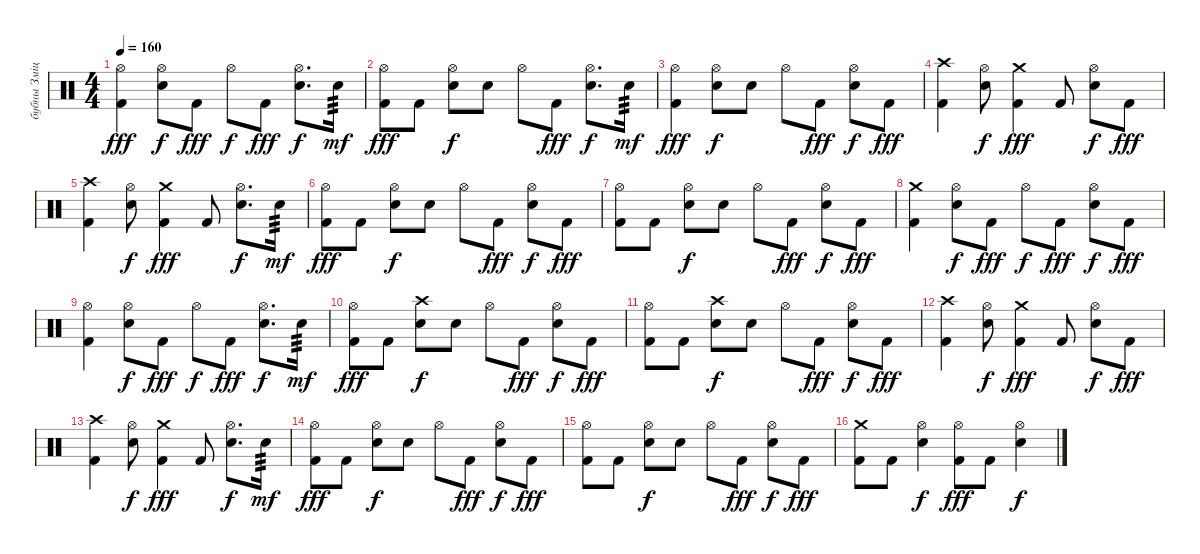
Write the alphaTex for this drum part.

\track ("бубны Змiцер" "бубны Змiц") {instrument percussion}
\staff {score}
\articulation defaults
\ts (4 4)
\tempo 160
\clef neutral
\ks c
("Hi-Hat (open)" "Kick (hit) 2").4{dy fff} ("Hi-Hat (open)" "Electric Snare (hit)").8{dy f} "Kick (hit) 2".8{dy fff} "Hi-Hat (open)".8{dy f} "Kick (hit) 2".8{dy fff} ("Hi-Hat (open)" "Electric Snare (hit)").8{d dy f} "Electric Snare (hit)".16{tp 3 dy mf} |
("Hi-Hat (open)" "Kick (hit) 2").8{dy fff} "Kick (hit) 2".8 ("Hi-Hat (open)" "Electric Snare (hit)").8{dy f} "Electric Snare (hit)".8 "Hi-Hat (open)".8 "Kick (hit) 2".8{dy fff} ("Hi-Hat (open)" "Electric Snare (hit)").8{d dy f} "Electric Snare (hit)".16{tp 3 dy mf} |
("Hi-Hat (open)" "Kick (hit) 2").4{dy fff} ("Hi-Hat (open)" "Electric Snare (hit)").8{dy f} "Electric Snare (hit)".8 "Hi-Hat (open)".8 "Kick (hit) 2".8{dy fff} ("Hi-Hat (open)" "Electric Snare (hit)").8{dy f} "Kick (hit) 2".8{dy fff} |
("Crash high (hit)" "Kick (hit) 2").4 ("Hi-Hat (open)" "Electric Snare (hit)").8{dy f} ("Crash medium (hit)" "Kick (hit) 2").4{dy fff} "Kick (hit) 2".8 ("Hi-Hat (open)" "Electric Snare (hit)").8{dy f} "Kick (hit) 2".8{dy fff} |
("Crash high (hit)" "Kick (hit) 2").4 ("Hi-Hat (open)" "Electric Snare (hit)").8{dy f} ("Crash medium (hit)" "Kick (hit) 2").4{dy fff} "Kick (hit) 2".8 ("Hi-Hat (open)" "Electric Snare (hit)").8{d dy f} "Electric Snare (hit)".16{tp 3 dy mf} |
("Hi-Hat (open)" "Kick (hit) 2").8{dy fff} "Kick (hit) 2".8 ("Hi-Hat (open)" "Electric Snare (hit)").8{dy f} "Electric Snare (hit)".8 "Hi-Hat (open)".8 "Kick (hit) 2".8{dy fff} ("Hi-Hat (open)" "Electric Snare (hit)").8{dy f} "Kick (hit) 2".8{dy fff} |
("Hi-Hat (open)" "Kick (hit) 2").8 "Kick (hit) 2".8 ("Hi-Hat (open)" "Electric Snare (hit)").8{dy f} "Electric Snare (hit)".8 "Hi-Hat (open)".8 "Kick (hit) 2".8{dy fff} ("Hi-Hat (open)" "Electric Snare (hit)").8{dy f} "Kick (hit) 2".8{dy fff} |
("Crash medium (hit)" "Kick (hit) 2").4 ("Hi-Hat (open)" "Electric Snare (hit)").8{dy f} "Kick (hit) 2".8{dy fff} "Hi-Hat (open)".8{dy f} "Kick (hit) 2".8{dy fff} ("Hi-Hat (open)" "Electric Snare (hit)").8{dy f} "Kick (hit) 2".8{dy fff} |
("Hi-Hat (open)" "Kick (hit) 2").4 ("Hi-Hat (open)" "Electric Snare (hit)").8{dy f} "Kick (hit) 2".8{dy fff} "Hi-Hat (open)".8{dy f} "Kick (hit) 2".8{dy fff} ("Hi-Hat (open)" "Electric Snare (hit)").8{d dy f} "Electric Snare (hit)".16{tp 3 dy mf} |
("Hi-Hat (open)" "Kick (hit) 2").8{dy fff} "Kick (hit) 2".8 ("Crash high (hit)" "Electric Snare (hit)").8{dy f} "Electric Snare (hit)".8 "Hi-Hat (open)".8 "Kick (hit) 2".8{dy fff} ("Hi-Hat (open)" "Electric Snare (hit)").8{dy f} "Kick (hit) 2".8{dy fff} |
("Hi-Hat (open)" "Kick (hit) 2").8 "Kick (hit) 2".8 ("Crash high (hit)" "Electric Snare (hit)").8{dy f} "Electric Snare (hit)".8 "Hi-Hat (open)".8 "Kick (hit) 2".8{dy fff} ("Hi-Hat (open)" "Electric Snare (hit)").8{dy f} "Kick (hit) 2".8{dy fff} |
("Crash high (hit)" "Kick (hit) 2").4 ("Hi-Hat (open)" "Electric Snare (hit)").8{dy f} ("Crash medium (hit)" "Kick (hit) 2").4{dy fff} "Kick (hit) 2".8 ("Hi-Hat (open)" "Electric Snare (hit)").8{dy f} "Kick (hit) 2".8{dy fff} |
("Crash high (hit)" "Kick (hit) 2").4 ("Hi-Hat (open)" "Electric Snare (hit)").8{dy f} ("Crash medium (hit)" "Kick (hit) 2").4{dy fff} "Kick (hit) 2".8 ("Hi-Hat (open)" "Electric Snare (hit)").8{d dy f} "Electric Snare (hit)".16{tp 3 dy mf} |
("Hi-Hat (open)" "Kick (hit) 2").8{dy fff} "Kick (hit) 2".8 ("Hi-Hat (open)" "Electric Snare (hit)").8{dy f} "Electric Snare (hit)".8 "Hi-Hat (open)".8 "Kick (hit) 2".8{dy fff} ("Hi-Hat (open)" "Electric Snare (hit)").8{dy f} "Kick (hit) 2".8{dy fff} |
("Hi-Hat (open)" "Kick (hit) 2").8 "Kick (hit) 2".8 ("Hi-Hat (open)" "Electric Snare (hit)").8{dy f} "Electric Snare (hit)".8 "Hi-Hat (open)".8 "Kick (hit) 2".8{dy fff} ("Hi-Hat (open)" "Electric Snare (hit)").8{dy f} "Kick (hit) 2".8{dy fff} |
("Crash medium (hit)" "Kick (hit) 2").8 "Kick (hit) 2".8 ("Hi-Hat (open)" "Electric Snare (hit)").4{dy f} ("Hi-Hat (open)" "Kick (hit) 2").8{dy fff} "Kick (hit) 2".8 ("Hi-Hat (open)" "Electric Snare (hit)").4{dy f}
